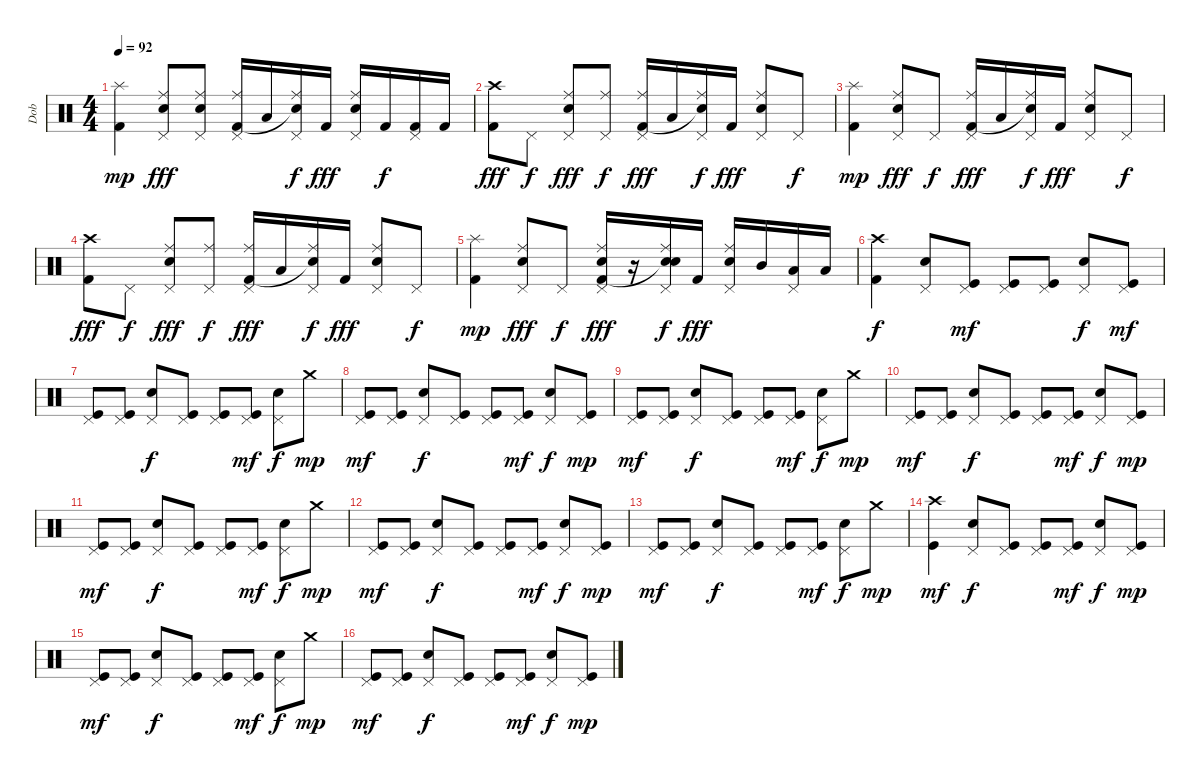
\track ("Dob" "Dob") {instrument percussion}
\staff {score}
\articulation defaults
\ts (4 4)
\tempo 92
\clef neutral
\ks c
("Kick (hit) 2" "Splash (hit)").4{dy mp} ("Electric Snare (hit)" "Ride (middle)" "Pedal Hi-Hat (hit)").8{dy fff} ("Electric Snare (hit)" "Ride (middle)" "Pedal Hi-Hat (hit)").8 ("Ride (middle)" "Kick (hit) 2" "Pedal Hi-Hat (hit)").16 "Low Tom (hit)".16 ("Ride (middle)" "Snare (hit)"{t} "Pedal Hi-Hat (hit)").16{dy f} "Kick (hit) 2".16{dy fff} ("Electric Snare (hit)" "Ride (middle)" "Pedal Hi-Hat (hit)").16 "Kick (hit) 2".16{dy f} ("Kick (hit) 2" "Pedal Hi-Hat (hit)").16 "Kick (hit) 2".16 |
("Kick (hit) 2" "Crash high (hit)").8{dy fff} "Pedal Hi-Hat (hit)".8{dy f} ("Electric Snare (hit)" "Ride (middle)" "Pedal Hi-Hat (hit)").8{dy fff} ("Ride (middle)" "Pedal Hi-Hat (hit)").8{dy f} ("Ride (middle)" "Kick (hit) 2" "Pedal Hi-Hat (hit)").16{dy fff} "Low Tom (hit)".16 ("Ride (middle)" "Snare (hit)"{t} "Pedal Hi-Hat (hit)").16{dy f} "Kick (hit) 2".16{dy fff} ("Electric Snare (hit)" "Ride (middle)" "Pedal Hi-Hat (hit)").8 "Pedal Hi-Hat (hit)".8{dy f} |
("Kick (hit) 2" "Splash (hit)").4{dy mp} ("Electric Snare (hit)" "Ride (middle)" "Pedal Hi-Hat (hit)").8{dy fff} "Pedal Hi-Hat (hit)".8{dy f} ("Ride (middle)" "Kick (hit) 2" "Pedal Hi-Hat (hit)").16{dy fff} "Low Tom (hit)".16 ("Ride (middle)" "Snare (hit)"{t} "Pedal Hi-Hat (hit)").16{dy f} "Kick (hit) 2".16{dy fff} ("Electric Snare (hit)" "Ride (middle)" "Pedal Hi-Hat (hit)").8 "Pedal Hi-Hat (hit)".8{dy f} |
("Kick (hit) 2" "Crash high (hit)").8{dy fff} "Pedal Hi-Hat (hit)".8{dy f} ("Electric Snare (hit)" "Ride (middle)" "Pedal Hi-Hat (hit)").8{dy fff} ("Ride (middle)" "Pedal Hi-Hat (hit)").8{dy f} ("Ride (middle)" "Kick (hit) 2" "Pedal Hi-Hat (hit)").16{dy fff} "Low Tom (hit)".16 ("Ride (middle)" "Snare (hit)"{t} "Pedal Hi-Hat (hit)").16{dy f} "Kick (hit) 2".16{dy fff} ("Electric Snare (hit)" "Ride (middle)" "Pedal Hi-Hat (hit)").8 "Pedal Hi-Hat (hit)".8{dy f} |
("Kick (hit) 2" "Splash (hit)").4{dy mp} ("Electric Snare (hit)" "Ride (middle)" "Pedal Hi-Hat (hit)").8{dy fff} "Pedal Hi-Hat (hit)".8{dy f} ("Electric Snare (hit)" "Ride (middle)" "Kick (hit) 2" "Pedal Hi-Hat (hit)").16{dy fff} r.16 ("Electric Snare (hit)" "Ride (middle)" "Snare (hit)"{t} "Pedal Hi-Hat (hit)").16{dy f} "Kick (hit) 2".16{dy fff} ("Electric Snare (hit)" "Ride (middle)" "Pedal Hi-Hat (hit)").16 "Mid Tom (hit)".16 ("Low Tom (hit)" "Pedal Hi-Hat (hit)").16 "Low Tom (hit)".16 |
("Kick (hit) 2" "Crash high (hit)").4{dy f} ("Electric Snare (hit)" "Pedal Hi-Hat (hit)").8 ("Kick (hit)" "Pedal Hi-Hat (hit)").8{dy mf} ("Kick (hit)" "Pedal Hi-Hat (hit)").8 ("Kick (hit)" "Pedal Hi-Hat (hit)").8 ("Electric Snare (hit)" "Pedal Hi-Hat (hit)").8{dy f} ("Kick (hit)" "Pedal Hi-Hat (hit)").8{dy mf} |
("Kick (hit)" "Pedal Hi-Hat (hit)").8 ("Kick (hit)" "Pedal Hi-Hat (hit)").8 ("Electric Snare (hit)" "Pedal Hi-Hat (hit)").8{dy f} ("Kick (hit)" "Pedal Hi-Hat (hit)").8 ("Kick (hit)" "Pedal Hi-Hat (hit)").8 ("Kick (hit)" "Pedal Hi-Hat (hit)").8{dy mf} ("Electric Snare (hit)" "Pedal Hi-Hat (hit)").8{dy f} "Crash medium (hit)".8{dy mp} |
("Kick (hit)" "Pedal Hi-Hat (hit)").8{dy mf} ("Kick (hit)" "Pedal Hi-Hat (hit)").8 ("Electric Snare (hit)" "Pedal Hi-Hat (hit)").8{dy f} ("Kick (hit)" "Pedal Hi-Hat (hit)").8 ("Kick (hit)" "Pedal Hi-Hat (hit)").8 ("Kick (hit)" "Pedal Hi-Hat (hit)").8{dy mf} ("Electric Snare (hit)" "Pedal Hi-Hat (hit)").8{dy f} ("Kick (hit)" "Pedal Hi-Hat (hit)").8{dy mp} |
("Kick (hit)" "Pedal Hi-Hat (hit)").8{dy mf} ("Kick (hit)" "Pedal Hi-Hat (hit)").8 ("Electric Snare (hit)" "Pedal Hi-Hat (hit)").8{dy f} ("Kick (hit)" "Pedal Hi-Hat (hit)").8 ("Kick (hit)" "Pedal Hi-Hat (hit)").8 ("Kick (hit)" "Pedal Hi-Hat (hit)").8{dy mf} ("Electric Snare (hit)" "Pedal Hi-Hat (hit)").8{dy f} "Crash medium (hit)".8{dy mp} |
("Kick (hit)" "Pedal Hi-Hat (hit)").8{dy mf} ("Kick (hit)" "Pedal Hi-Hat (hit)").8 ("Electric Snare (hit)" "Pedal Hi-Hat (hit)").8{dy f} ("Kick (hit)" "Pedal Hi-Hat (hit)").8 ("Kick (hit)" "Pedal Hi-Hat (hit)").8 ("Kick (hit)" "Pedal Hi-Hat (hit)").8{dy mf} ("Electric Snare (hit)" "Pedal Hi-Hat (hit)").8{dy f} ("Kick (hit)" "Pedal Hi-Hat (hit)").8{dy mp} |
("Kick (hit)" "Pedal Hi-Hat (hit)").8{dy mf} ("Kick (hit)" "Pedal Hi-Hat (hit)").8 ("Electric Snare (hit)" "Pedal Hi-Hat (hit)").8{dy f} ("Kick (hit)" "Pedal Hi-Hat (hit)").8 ("Kick (hit)" "Pedal Hi-Hat (hit)").8 ("Kick (hit)" "Pedal Hi-Hat (hit)").8{dy mf} ("Electric Snare (hit)" "Pedal Hi-Hat (hit)").8{dy f} "Crash medium (hit)".8{dy mp} |
("Kick (hit)" "Pedal Hi-Hat (hit)").8{dy mf} ("Kick (hit)" "Pedal Hi-Hat (hit)").8 ("Electric Snare (hit)" "Pedal Hi-Hat (hit)").8{dy f} ("Kick (hit)" "Pedal Hi-Hat (hit)").8 ("Kick (hit)" "Pedal Hi-Hat (hit)").8 ("Kick (hit)" "Pedal Hi-Hat (hit)").8{dy mf} ("Electric Snare (hit)" "Pedal Hi-Hat (hit)").8{dy f} ("Kick (hit)" "Pedal Hi-Hat (hit)").8{dy mp} |
("Kick (hit)" "Pedal Hi-Hat (hit)").8{dy mf} ("Kick (hit)" "Pedal Hi-Hat (hit)").8 ("Electric Snare (hit)" "Pedal Hi-Hat (hit)").8{dy f} ("Kick (hit)" "Pedal Hi-Hat (hit)").8 ("Kick (hit)" "Pedal Hi-Hat (hit)").8 ("Kick (hit)" "Pedal Hi-Hat (hit)").8{dy mf} ("Electric Snare (hit)" "Pedal Hi-Hat (hit)").8{dy f} "Crash medium (hit)".8{dy mp} |
("Kick (hit)" "Crash high (hit)").4{dy mf} ("Electric Snare (hit)" "Pedal Hi-Hat (hit)").8{dy f} ("Kick (hit)" "Pedal Hi-Hat (hit)").8 ("Kick (hit)" "Pedal Hi-Hat (hit)").8 ("Kick (hit)" "Pedal Hi-Hat (hit)").8{dy mf} ("Electric Snare (hit)" "Pedal Hi-Hat (hit)").8{dy f} ("Kick (hit)" "Pedal Hi-Hat (hit)").8{dy mp} |
("Kick (hit)" "Pedal Hi-Hat (hit)").8{dy mf} ("Kick (hit)" "Pedal Hi-Hat (hit)").8 ("Electric Snare (hit)" "Pedal Hi-Hat (hit)").8{dy f} ("Kick (hit)" "Pedal Hi-Hat (hit)").8 ("Kick (hit)" "Pedal Hi-Hat (hit)").8 ("Kick (hit)" "Pedal Hi-Hat (hit)").8{dy mf} ("Electric Snare (hit)" "Pedal Hi-Hat (hit)").8{dy f} "Crash medium (hit)".8{dy mp} |
("Kick (hit)" "Pedal Hi-Hat (hit)").8{dy mf} ("Kick (hit)" "Pedal Hi-Hat (hit)").8 ("Electric Snare (hit)" "Pedal Hi-Hat (hit)").8{dy f} ("Kick (hit)" "Pedal Hi-Hat (hit)").8 ("Kick (hit)" "Pedal Hi-Hat (hit)").8 ("Kick (hit)" "Pedal Hi-Hat (hit)").8{dy mf} ("Electric Snare (hit)" "Pedal Hi-Hat (hit)").8{dy f} ("Kick (hit)" "Pedal Hi-Hat (hit)").8{dy mp}
